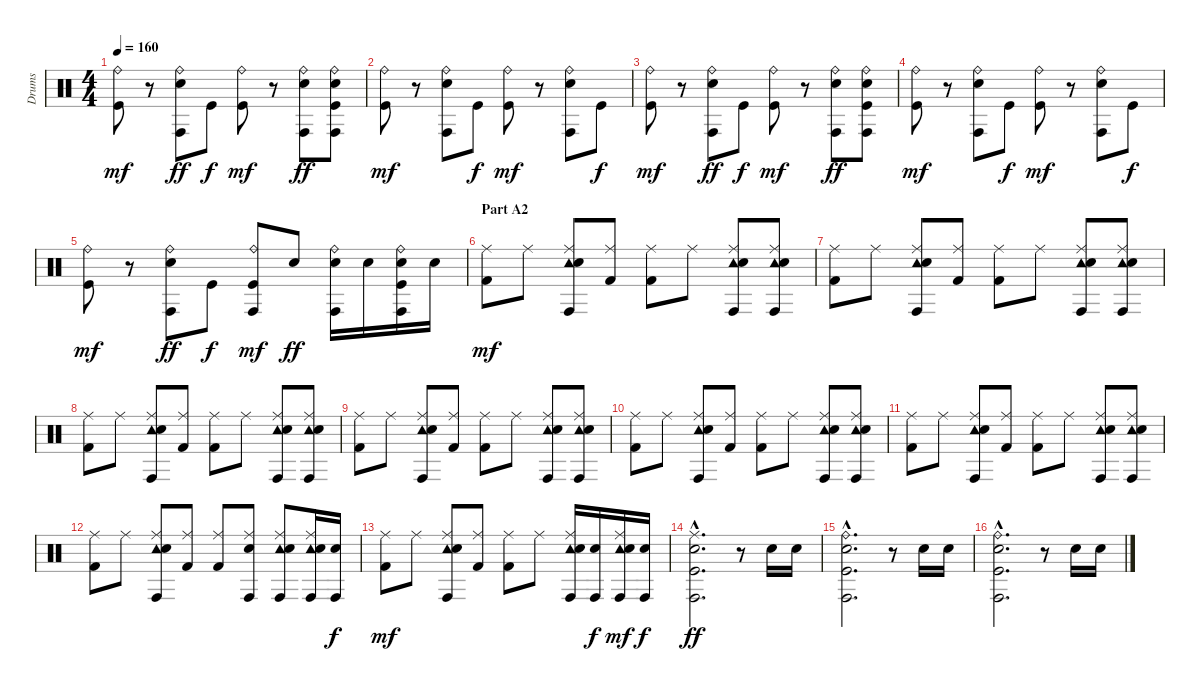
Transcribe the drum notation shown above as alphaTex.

\track ("Drums" "Drums") {instrument percussion}
\staff {score}
\articulation defaults
\ts (4 4)
\tempo 160
\clef neutral
\ks c
("Ride (bell)" "Kick (hit)").8{dy mf} r.8 ("Ride (bell)" "Conga high (hit)" "Electric Snare (hit)").8{dy ff} "Kick (hit)".8{dy f} ("Ride (bell)" "Kick (hit)").8{dy mf} r.8 ("Ride (bell)" "Conga high (hit)" "Electric Snare (hit)").8{dy ff} ("Ride (bell)" "Conga high (hit)" "Electric Snare (hit)" "Kick (hit)").8 |
("Ride (bell)" "Kick (hit)").8{dy mf} r.8 ("Ride (bell)" "Conga high (hit)" "Electric Snare (hit)").8 "Kick (hit)".8{dy f} ("Ride (bell)" "Kick (hit)").8{dy mf} r.8 ("Ride (bell)" "Conga high (hit)" "Electric Snare (hit)").8 "Kick (hit)".8{dy f} |
("Ride (bell)" "Kick (hit)").8{dy mf} r.8 ("Ride (bell)" "Conga high (hit)" "Electric Snare (hit)").8{dy ff} "Kick (hit)".8{dy f} ("Ride (bell)" "Kick (hit)").8{dy mf} r.8 ("Ride (bell)" "Conga high (hit)" "Electric Snare (hit)").8{dy ff} ("Ride (bell)" "Conga high (hit)" "Electric Snare (hit)" "Kick (hit)").8 |
("Ride (bell)" "Kick (hit)").8{dy mf} r.8 ("Ride (bell)" "Conga high (hit)" "Electric Snare (hit)").8 "Kick (hit)".8{dy f} ("Ride (bell)" "Kick (hit)").8{dy mf} r.8 ("Ride (bell)" "Conga high (hit)" "Electric Snare (hit)").8 "Kick (hit)".8{dy f} |
("Ride (bell)" "Kick (hit)").8{dy mf} r.8 ("Ride (bell)" "Conga high (hit)" "Electric Snare (hit)").8{dy ff} "Kick (hit)".8{dy f} ("Ride (bell)" "Conga high (hit)" "Kick (hit)").8{dy mf} "Electric Snare (hit)".8{dy ff} ("Ride (bell)" "Conga high (hit)" "Electric Snare (hit)").16 "Electric Snare (hit)".16 ("Ride (bell)" "Conga high (hit)" "Electric Snare (hit)" "Kick (hit)").16 "Electric Snare (hit)".16 |
\section ("" "Part A2")
("Ride (middle)" "Kick (hit) 2").8{dy mf} "Ride (middle)".8 ("Ride (middle)" "Tambourine (hit)" "Conga high (hit)" "Electric Snare (hit)").8 ("Ride (middle)" "Kick (hit) 2").8 ("Ride (middle)" "Kick (hit) 2").8 "Ride (middle)".8 ("Ride (middle)" "Tambourine (hit)" "Conga high (hit)" "Electric Snare (hit)").8 ("Ride (middle)" "Tambourine (hit)" "Conga high (hit)" "Electric Snare (hit)").8 |
("Ride (middle)" "Kick (hit) 2").8 "Ride (middle)".8 ("Ride (middle)" "Tambourine (hit)" "Conga high (hit)" "Electric Snare (hit)").8 ("Ride (middle)" "Kick (hit) 2").8 ("Ride (middle)" "Kick (hit) 2").8 "Ride (middle)".8 ("Ride (middle)" "Tambourine (hit)" "Conga high (hit)" "Electric Snare (hit)").8 ("Ride (middle)" "Tambourine (hit)" "Conga high (hit)" "Electric Snare (hit)").8 |
("Ride (middle)" "Kick (hit) 2").8 "Ride (middle)".8 ("Ride (middle)" "Tambourine (hit)" "Conga high (hit)" "Electric Snare (hit)").8 ("Ride (middle)" "Kick (hit) 2").8 ("Ride (middle)" "Kick (hit) 2").8 "Ride (middle)".8 ("Ride (middle)" "Tambourine (hit)" "Conga high (hit)" "Electric Snare (hit)").8 ("Ride (middle)" "Tambourine (hit)" "Conga high (hit)" "Electric Snare (hit)").8 |
("Ride (middle)" "Kick (hit) 2").8 "Ride (middle)".8 ("Ride (middle)" "Tambourine (hit)" "Conga high (hit)" "Electric Snare (hit)").8 ("Ride (middle)" "Kick (hit) 2").8 ("Ride (middle)" "Kick (hit) 2").8 "Ride (middle)".8 ("Ride (middle)" "Tambourine (hit)" "Conga high (hit)" "Electric Snare (hit)").8 ("Ride (middle)" "Tambourine (hit)" "Conga high (hit)" "Electric Snare (hit)").8 |
("Ride (middle)" "Kick (hit) 2").8 "Ride (middle)".8 ("Ride (middle)" "Tambourine (hit)" "Conga high (hit)" "Electric Snare (hit)").8 ("Ride (middle)" "Kick (hit) 2").8 ("Ride (middle)" "Kick (hit) 2").8 "Ride (middle)".8 ("Ride (middle)" "Tambourine (hit)" "Conga high (hit)" "Electric Snare (hit)").8 ("Ride (middle)" "Tambourine (hit)" "Conga high (hit)" "Electric Snare (hit)").8 |
("Ride (middle)" "Kick (hit) 2").8 "Ride (middle)".8 ("Ride (middle)" "Tambourine (hit)" "Conga high (hit)" "Electric Snare (hit)").8 ("Ride (middle)" "Kick (hit) 2").8 ("Ride (middle)" "Kick (hit) 2").8 "Ride (middle)".8 ("Ride (middle)" "Tambourine (hit)" "Conga high (hit)" "Electric Snare (hit)").8 ("Ride (middle)" "Tambourine (hit)" "Conga high (hit)" "Electric Snare (hit)").8 |
("Ride (middle)" "Kick (hit) 2").8 "Ride (middle)".8 ("Ride (middle)" "Tambourine (hit)" "Conga high (hit)" "Electric Snare (hit)").8 ("Ride (middle)" "Kick (hit) 2").8 ("Ride (middle)" "Kick (hit) 2").8 ("Ride (middle)" "Conga high (hit)" "Electric Snare (hit)").8 ("Ride (middle)" "Tambourine (hit)" "Conga high (hit)" "Electric Snare (hit)").8 ("Ride (middle)" "Tambourine (hit)" "Conga high (hit)" "Electric Snare (hit)").16 ("Conga high (hit)" "Electric Snare (hit)").16{dy f} |
("Ride (middle)" "Kick (hit) 2").8{dy mf} "Ride (middle)".8 ("Ride (middle)" "Tambourine (hit)" "Conga high (hit)" "Electric Snare (hit)").8 ("Ride (middle)" "Kick (hit) 2").8 ("Ride (middle)" "Kick (hit) 2").8 "Ride (middle)".8 ("Ride (middle)" "Tambourine (hit)" "Conga high (hit)" "Electric Snare (hit)").16 ("Conga high (hit)" "Electric Snare (hit)").16{dy f} ("Ride (middle)" "Tambourine (hit)" "Conga high (hit)" "Electric Snare (hit)").16{dy mf} ("Conga high (hit)" "Electric Snare (hit)").16{dy f} |
("Ride (middle)"{hac} "Conga high (hit)"{hac} "Electric Snare (hit)"{hac} "Kick (hit)"{hac}).2{d dy ff} r.8 "Electric Snare (hit)".16 "Electric Snare (hit)".16 |
("Ride (bell)"{hac} "Conga high (hit)"{hac} "Electric Snare (hit)"{hac} "Kick (hit)"{hac}).2{d} r.8 "Electric Snare (hit)".16 "Electric Snare (hit)".16 |
("Ride (bell)"{hac} "Conga high (hit)"{hac} "Electric Snare (hit)"{hac} "Kick (hit)"{hac}).2{d} r.8 "Electric Snare (hit)".16 "Electric Snare (hit)".16
